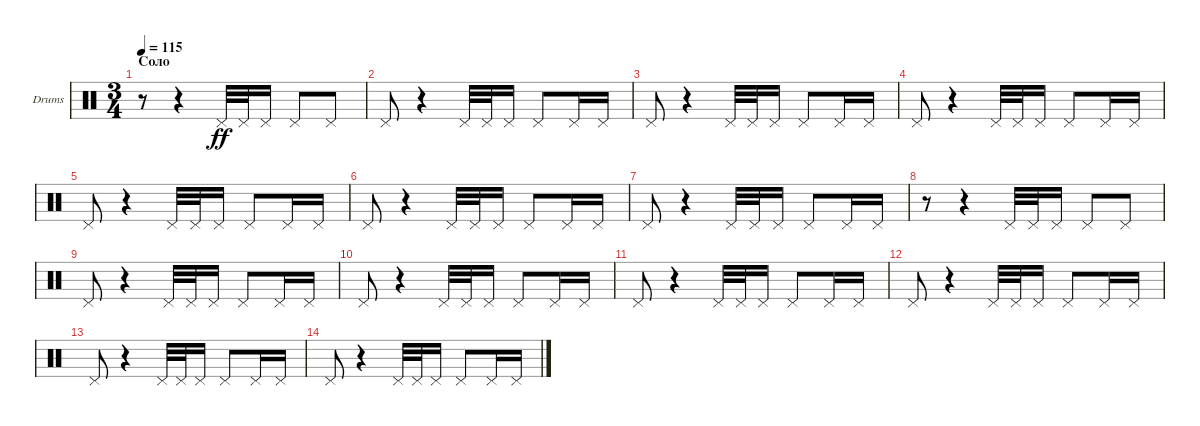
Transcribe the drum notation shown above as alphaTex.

\defaultSystemsLayout 4
\bracketExtendMode groupsimilarinstruments
\firstSystemTrackNameOrientation horizontal
\otherSystemsTrackNameOrientation horizontal
\track ("Е. Кулаков" "Drums") {instrument percussion}
\staff {score}
\articulation defaults
\ts (3 4)
\section ("" "Соло")
\tempo 115
\clef neutral
\ks c
r.8{dy ff} r.4 "Pedal Hi-Hat (hit)".32 "Pedal Hi-Hat (hit)".32 "Pedal Hi-Hat (hit)".16 "Pedal Hi-Hat (hit)".8 "Pedal Hi-Hat (hit)".8 |
"Pedal Hi-Hat (hit)".8 r.4 "Pedal Hi-Hat (hit)".32 "Pedal Hi-Hat (hit)".32 "Pedal Hi-Hat (hit)".16 "Pedal Hi-Hat (hit)".8 "Pedal Hi-Hat (hit)".16 "Pedal Hi-Hat (hit)".16 |
"Pedal Hi-Hat (hit)".8 r.4 "Pedal Hi-Hat (hit)".32 "Pedal Hi-Hat (hit)".32 "Pedal Hi-Hat (hit)".16 "Pedal Hi-Hat (hit)".8 "Pedal Hi-Hat (hit)".16 "Pedal Hi-Hat (hit)".16 |
"Pedal Hi-Hat (hit)".8 r.4 "Pedal Hi-Hat (hit)".32 "Pedal Hi-Hat (hit)".32 "Pedal Hi-Hat (hit)".16 "Pedal Hi-Hat (hit)".8 "Pedal Hi-Hat (hit)".16 "Pedal Hi-Hat (hit)".16 |
"Pedal Hi-Hat (hit)".8 r.4 "Pedal Hi-Hat (hit)".32 "Pedal Hi-Hat (hit)".32 "Pedal Hi-Hat (hit)".16 "Pedal Hi-Hat (hit)".8 "Pedal Hi-Hat (hit)".16 "Pedal Hi-Hat (hit)".16 |
"Pedal Hi-Hat (hit)".8 r.4 "Pedal Hi-Hat (hit)".32 "Pedal Hi-Hat (hit)".32 "Pedal Hi-Hat (hit)".16 "Pedal Hi-Hat (hit)".8 "Pedal Hi-Hat (hit)".16 "Pedal Hi-Hat (hit)".16 |
"Pedal Hi-Hat (hit)".8 r.4 "Pedal Hi-Hat (hit)".32 "Pedal Hi-Hat (hit)".32 "Pedal Hi-Hat (hit)".16 "Pedal Hi-Hat (hit)".8 "Pedal Hi-Hat (hit)".16 "Pedal Hi-Hat (hit)".16 |
r.8 r.4 "Pedal Hi-Hat (hit)".32 "Pedal Hi-Hat (hit)".32 "Pedal Hi-Hat (hit)".16 "Pedal Hi-Hat (hit)".8 "Pedal Hi-Hat (hit)".8 |
"Pedal Hi-Hat (hit)".8 r.4 "Pedal Hi-Hat (hit)".32 "Pedal Hi-Hat (hit)".32 "Pedal Hi-Hat (hit)".16 "Pedal Hi-Hat (hit)".8 "Pedal Hi-Hat (hit)".16 "Pedal Hi-Hat (hit)".16 |
"Pedal Hi-Hat (hit)".8 r.4 "Pedal Hi-Hat (hit)".32 "Pedal Hi-Hat (hit)".32 "Pedal Hi-Hat (hit)".16 "Pedal Hi-Hat (hit)".8 "Pedal Hi-Hat (hit)".16 "Pedal Hi-Hat (hit)".16 |
"Pedal Hi-Hat (hit)".8 r.4 "Pedal Hi-Hat (hit)".32 "Pedal Hi-Hat (hit)".32 "Pedal Hi-Hat (hit)".16 "Pedal Hi-Hat (hit)".8 "Pedal Hi-Hat (hit)".16 "Pedal Hi-Hat (hit)".16 |
"Pedal Hi-Hat (hit)".8 r.4 "Pedal Hi-Hat (hit)".32 "Pedal Hi-Hat (hit)".32 "Pedal Hi-Hat (hit)".16 "Pedal Hi-Hat (hit)".8 "Pedal Hi-Hat (hit)".16 "Pedal Hi-Hat (hit)".16 |
"Pedal Hi-Hat (hit)".8 r.4 "Pedal Hi-Hat (hit)".32 "Pedal Hi-Hat (hit)".32 "Pedal Hi-Hat (hit)".16 "Pedal Hi-Hat (hit)".8 "Pedal Hi-Hat (hit)".16 "Pedal Hi-Hat (hit)".16 |
"Pedal Hi-Hat (hit)".8 r.4 "Pedal Hi-Hat (hit)".32 "Pedal Hi-Hat (hit)".32 "Pedal Hi-Hat (hit)".16 "Pedal Hi-Hat (hit)".8 "Pedal Hi-Hat (hit)".16 "Pedal Hi-Hat (hit)".16
